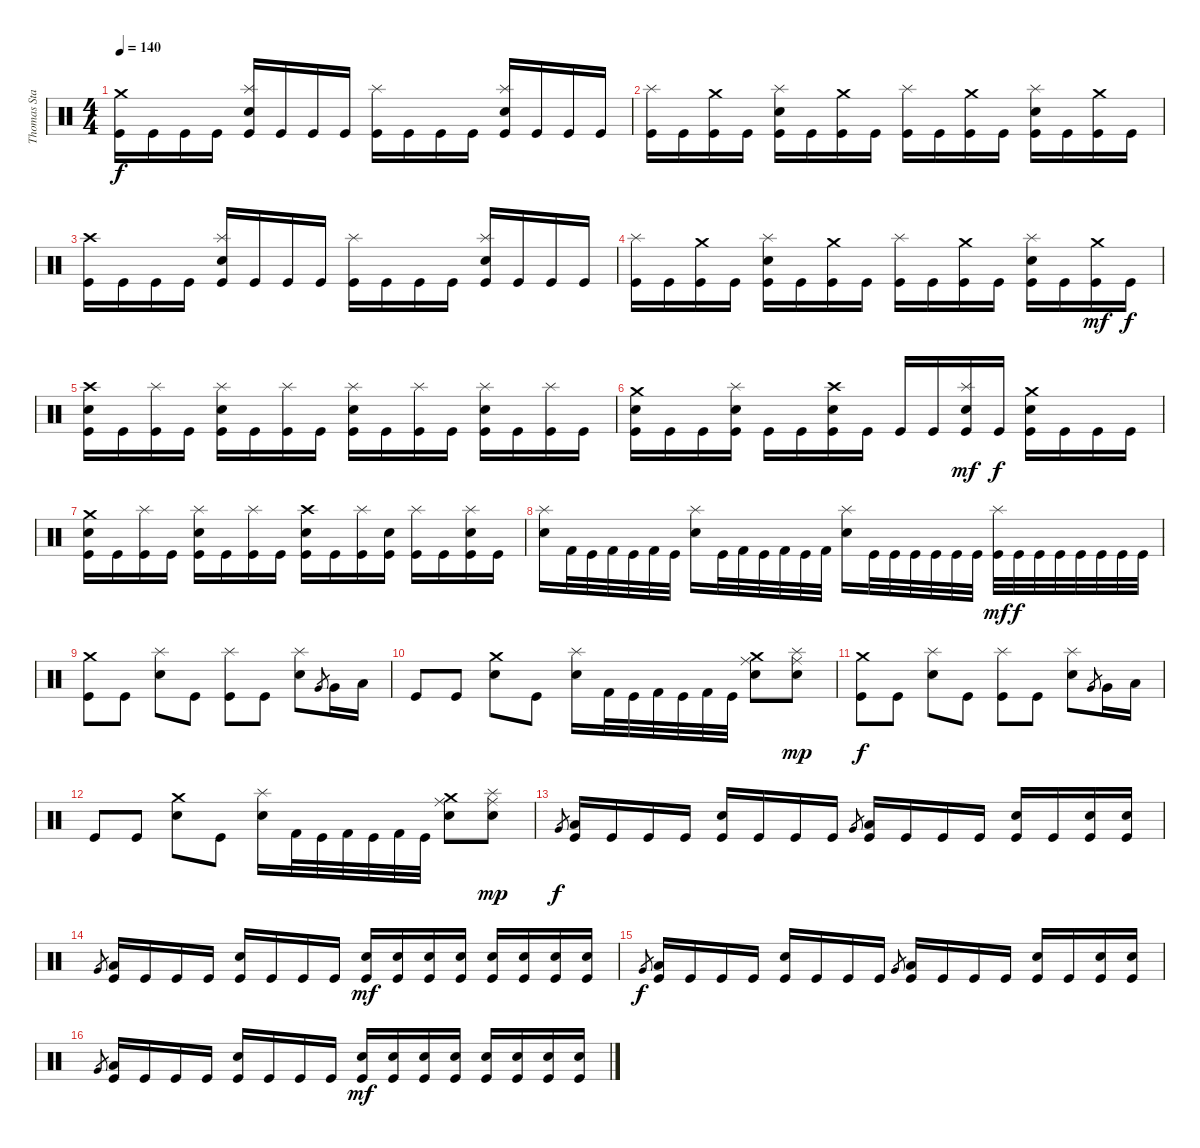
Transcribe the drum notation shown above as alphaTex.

\track ("Thomas Stauch" "Thomas Sta") {instrument percussion}
\staff {score}
\articulation defaults
\ts (4 4)
\tempo 140
\clef neutral
\ks c
("Crash medium (hit)" "Kick (hit)").16{dy f} "Kick (hit)".16 "Kick (hit)".16 "Kick (hit)".16 ("Splash (hit)" "Electric Snare (hit)" "Kick (hit)").16 "Kick (hit)".16 "Kick (hit)".16 "Kick (hit)".16 ("Splash (hit)" "Kick (hit)").16 "Kick (hit)".16 "Kick (hit)".16 "Kick (hit)".16 ("Splash (hit)" "Electric Snare (hit)" "Kick (hit)").16 "Kick (hit)".16 "Kick (hit)".16 "Kick (hit)".16 |
("Splash (hit)" "Kick (hit)").16 "Kick (hit)".16 ("Crash medium (hit)" "Kick (hit)").16 "Kick (hit)".16 ("Splash (hit)" "Electric Snare (hit)" "Kick (hit)").16 "Kick (hit)".16 ("Crash medium (hit)" "Kick (hit)").16 "Kick (hit)".16 ("Splash (hit)" "Kick (hit)").16 "Kick (hit)".16 ("Crash medium (hit)" "Kick (hit)").16 "Kick (hit)".16 ("Splash (hit)" "Electric Snare (hit)" "Kick (hit)").16 "Kick (hit)".16 ("Crash medium (hit)" "Kick (hit)").16 "Kick (hit)".16 |
("Crash high (hit)" "Kick (hit)").16 "Kick (hit)".16 "Kick (hit)".16 "Kick (hit)".16 ("Splash (hit)" "Electric Snare (hit)" "Kick (hit)").16 "Kick (hit)".16 "Kick (hit)".16 "Kick (hit)".16 ("Splash (hit)" "Kick (hit)").16 "Kick (hit)".16 "Kick (hit)".16 "Kick (hit)".16 ("Splash (hit)" "Electric Snare (hit)" "Kick (hit)").16 "Kick (hit)".16 "Kick (hit)".16 "Kick (hit)".16 |
("Splash (hit)" "Kick (hit)").16 "Kick (hit)".16 ("Crash medium (hit)" "Kick (hit)").16 "Kick (hit)".16 ("Splash (hit)" "Electric Snare (hit)" "Kick (hit)").16 "Kick (hit)".16 ("Crash medium (hit)" "Kick (hit)").16 "Kick (hit)".16 ("Splash (hit)" "Kick (hit)").16 "Kick (hit)".16 ("Crash medium (hit)" "Kick (hit)").16 "Kick (hit)".16 ("Splash (hit)" "Electric Snare (hit)" "Kick (hit)").16 "Kick (hit)".16 ("Crash medium (hit)" "Kick (hit)").16{dy mf} "Kick (hit)".16{dy f} |
("Crash high (hit)" "Electric Snare (hit)" "Kick (hit)").16 "Kick (hit)".16 ("Splash (hit)" "Kick (hit)").16 "Kick (hit)".16 ("Splash (hit)" "Electric Snare (hit)" "Kick (hit)").16 "Kick (hit)".16 ("Splash (hit)" "Kick (hit)").16 "Kick (hit)".16 ("Splash (hit)" "Electric Snare (hit)" "Kick (hit)").16 "Kick (hit)".16 ("Splash (hit)" "Kick (hit)").16 "Kick (hit)".16 ("Splash (hit)" "Electric Snare (hit)" "Kick (hit)").16 "Kick (hit)".16 ("Splash (hit)" "Kick (hit)").16 "Kick (hit)".16 |
("Crash medium (hit)" "Electric Snare (hit)" "Kick (hit)").16 "Kick (hit)".16 "Kick (hit)".16 ("Splash (hit)" "Electric Snare (hit)" "Kick (hit)").16 "Kick (hit)".16 "Kick (hit)".16 ("Crash high (hit)" "Electric Snare (hit)" "Kick (hit)").16 "Kick (hit)".16 "Kick (hit)".16 "Kick (hit)".16 ("Splash (hit)" "Electric Snare (hit)" "Kick (hit)").16{dy mf} "Kick (hit)".16{dy f} ("Crash medium (hit)" "Electric Snare (hit)" "Kick (hit)").16 "Kick (hit)".16 "Kick (hit)".16 "Kick (hit)".16 |
("Crash medium (hit)" "Electric Snare (hit)" "Kick (hit)").16 "Kick (hit)".16 ("Splash (hit)" "Kick (hit)").16 "Kick (hit)".16 ("Splash (hit)" "Electric Snare (hit)" "Kick (hit)").16 "Kick (hit)".16 ("Splash (hit)" "Kick (hit)").16 "Kick (hit)".16 ("Crash high (hit)" "Electric Snare (hit)" "Kick (hit)").16 "Kick (hit)".16 ("Splash (hit)" "Kick (hit)").16 ("Electric Snare (hit)" "Kick (hit)").16 ("Splash (hit)" "Kick (hit)").16 "Kick (hit)".16 ("Splash (hit)" "Electric Snare (hit)" "Kick (hit)").16 "Kick (hit)".16 |
("Splash (hit)" "Electric Snare (hit)").16 "Kick (hit) 2".32 "Kick (hit)".32 "Kick (hit) 2".32 "Kick (hit)".32 "Kick (hit) 2".32 "Kick (hit)".32 ("Splash (hit)" "Electric Snare (hit)").16 "Kick (hit)".32 "Kick (hit) 2".32 "Kick (hit)".32 "Kick (hit) 2".32 "Kick (hit)".32 "Kick (hit) 2".32 ("Splash (hit)" "Electric Snare (hit)").16 "Kick (hit)".32 "Kick (hit)".32 "Kick (hit)".32 "Kick (hit)".32 "Kick (hit)".32 "Kick (hit)".32 ("Splash (hit)" "Kick (hit)").32{dy mf} "Kick (hit)".32{dy f} "Kick (hit)".32 "Kick (hit)".32 "Kick (hit)".32 "Kick (hit)".32 "Kick (hit)".32 "Kick (hit)".32 |
("Crash medium (hit)" "Kick (hit)").8 "Kick (hit)".8 ("Splash (hit)" "Electric Snare (hit)").8 "Kick (hit)".8 ("Splash (hit)" "Kick (hit)").8 "Kick (hit)".8 ("Splash (hit)" "Electric Snare (hit)").8 "Very Low Tom (hit)".8{gr} "Very Low Tom (hit)".16 "Low Floor Tom (hit)".16 |
"Kick (hit)".8 "Kick (hit)".8 ("Crash medium (hit)" "Electric Snare (hit)").8 "Kick (hit)".8 ("Splash (hit)" "Electric Snare (hit)").16 "Kick (hit) 2".32 "Kick (hit)".32 "Kick (hit) 2".32 "Kick (hit)".32 "Kick (hit) 2".32 "Kick (hit)".32 ("Crash medium (hit)" "Ride (middle)" "Electric Snare (hit)").8 ("Splash (hit)" "Ride (middle)" "Electric Snare (hit)").8{dy mp} |
("Crash medium (hit)" "Kick (hit)").8{dy f} "Kick (hit)".8 ("Splash (hit)" "Electric Snare (hit)").8 "Kick (hit)".8 ("Splash (hit)" "Kick (hit)").8 "Kick (hit)".8 ("Splash (hit)" "Electric Snare (hit)").8 "Very Low Tom (hit)".8{gr} "Very Low Tom (hit)".16 "Low Floor Tom (hit)".16 |
"Kick (hit)".8 "Kick (hit)".8 ("Crash medium (hit)" "Electric Snare (hit)").8 "Kick (hit)".8 ("Splash (hit)" "Electric Snare (hit)").16 "Kick (hit) 2".32 "Kick (hit)".32 "Kick (hit) 2".32 "Kick (hit)".32 "Kick (hit) 2".32 "Kick (hit)".32 ("Crash medium (hit)" "Ride (middle)" "Electric Snare (hit)").8 ("Splash (hit)" "Ride (middle)" "Electric Snare (hit)").8{dy mp} |
"Very Low Tom (hit)".8{gr dy f} ("Low Tom (hit)" "Kick (hit)").16 "Kick (hit)".16 "Kick (hit)".16 "Kick (hit)".16 ("Electric Snare (hit)" "Kick (hit)").16 "Kick (hit)".16 "Kick (hit)".16 "Kick (hit)".16 "Very Low Tom (hit)".8{gr} ("Low Tom (hit)" "Kick (hit)").16 "Kick (hit)".16 "Kick (hit)".16 "Kick (hit)".16 ("Electric Snare (hit)" "Kick (hit)").16 "Kick (hit)".16 ("Electric Snare (hit)" "Kick (hit)").16 ("Electric Snare (hit)" "Kick (hit)").16 |
"Very Low Tom (hit)".8{gr} ("Low Tom (hit)" "Kick (hit)").16 "Kick (hit)".16 "Kick (hit)".16 "Kick (hit)".16 ("Electric Snare (hit)" "Kick (hit)").16 "Kick (hit)".16 "Kick (hit)".16 "Kick (hit)".16 ("Electric Snare (hit)" "Kick (hit)").16{dy mf} ("Electric Snare (hit)" "Kick (hit)").16 ("Electric Snare (hit)" "Kick (hit)").16 ("Electric Snare (hit)" "Kick (hit)").16 ("Electric Snare (hit)" "Kick (hit)").16 ("Electric Snare (hit)" "Kick (hit)").16 ("Electric Snare (hit)" "Kick (hit)").16 ("Electric Snare (hit)" "Kick (hit)").16 |
"Very Low Tom (hit)".8{gr dy f} ("Low Tom (hit)" "Kick (hit)").16 "Kick (hit)".16 "Kick (hit)".16 "Kick (hit)".16 ("Electric Snare (hit)" "Kick (hit)").16 "Kick (hit)".16 "Kick (hit)".16 "Kick (hit)".16 "Very Low Tom (hit)".8{gr} ("Low Tom (hit)" "Kick (hit)").16 "Kick (hit)".16 "Kick (hit)".16 "Kick (hit)".16 ("Electric Snare (hit)" "Kick (hit)").16 "Kick (hit)".16 ("Electric Snare (hit)" "Kick (hit)").16 ("Electric Snare (hit)" "Kick (hit)").16 |
"Very Low Tom (hit)".8{gr} ("Low Tom (hit)" "Kick (hit)").16 "Kick (hit)".16 "Kick (hit)".16 "Kick (hit)".16 ("Electric Snare (hit)" "Kick (hit)").16 "Kick (hit)".16 "Kick (hit)".16 "Kick (hit)".16 ("Electric Snare (hit)" "Kick (hit)").16{dy mf} ("Electric Snare (hit)" "Kick (hit)").16 ("Electric Snare (hit)" "Kick (hit)").16 ("Electric Snare (hit)" "Kick (hit)").16 ("Electric Snare (hit)" "Kick (hit)").16 ("Electric Snare (hit)" "Kick (hit)").16 ("Electric Snare (hit)" "Kick (hit)").16 ("Electric Snare (hit)" "Kick (hit)").16
